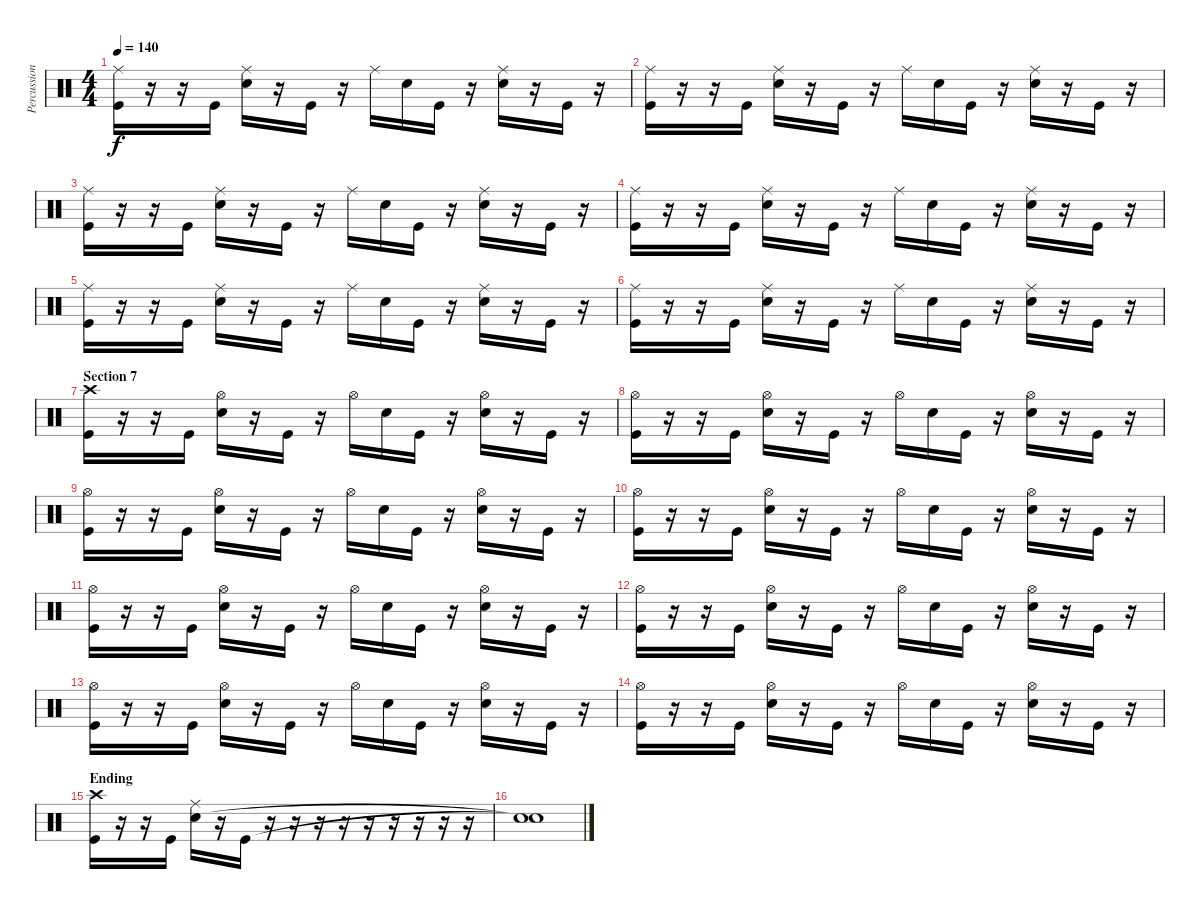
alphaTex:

\track ("Percussion" "Percussion") {instrument percussion}
\staff {score}
\articulation defaults
\ts (4 4)
\tempo 140
\clef neutral
\ks c
("Ride (middle)" "Kick (hit)").16{dy f} r.16 r.16 "Kick (hit)".16 ("Ride (middle)" "Electric Snare (hit)").16 r.16 "Kick (hit)".16 r.16 "Ride (middle)".16 "Electric Snare (hit)".16 "Kick (hit)".16 r.16 ("Ride (middle)" "Electric Snare (hit)").16 r.16 "Kick (hit)".16 r.16 |
("Ride (middle)" "Kick (hit)").16 r.16 r.16 "Kick (hit)".16 ("Ride (middle)" "Electric Snare (hit)").16 r.16 "Kick (hit)".16 r.16 "Ride (middle)".16 "Electric Snare (hit)".16 "Kick (hit)".16 r.16 ("Ride (middle)" "Electric Snare (hit)").16 r.16 "Kick (hit)".16 r.16 |
("Ride (middle)" "Kick (hit)").16 r.16 r.16 "Kick (hit)".16 ("Ride (middle)" "Electric Snare (hit)").16 r.16 "Kick (hit)".16 r.16 "Ride (middle)".16 "Electric Snare (hit)".16 "Kick (hit)".16 r.16 ("Ride (middle)" "Electric Snare (hit)").16 r.16 "Kick (hit)".16 r.16 |
("Ride (middle)" "Kick (hit)").16 r.16 r.16 "Kick (hit)".16 ("Ride (middle)" "Electric Snare (hit)").16 r.16 "Kick (hit)".16 r.16 "Ride (middle)".16 "Electric Snare (hit)".16 "Kick (hit)".16 r.16 ("Ride (middle)" "Electric Snare (hit)").16 r.16 "Kick (hit)".16 r.16 |
("Ride (middle)" "Kick (hit)").16 r.16 r.16 "Kick (hit)".16 ("Ride (middle)" "Electric Snare (hit)").16 r.16 "Kick (hit)".16 r.16 "Ride (middle)".16 "Electric Snare (hit)".16 "Kick (hit)".16 r.16 ("Ride (middle)" "Electric Snare (hit)").16 r.16 "Kick (hit)".16 r.16 |
("Ride (middle)" "Kick (hit)").16 r.16 r.16 "Kick (hit)".16 ("Ride (middle)" "Electric Snare (hit)").16 r.16 "Kick (hit)".16 r.16 "Ride (middle)".16 "Electric Snare (hit)".16 "Kick (hit)".16 r.16 ("Ride (middle)" "Electric Snare (hit)").16 r.16 "Kick (hit)".16 r.16 |
\section ("" "Section 7")
("Crash high (hit)" "Kick (hit)").16 r.16 r.16 "Kick (hit)".16 ("Hi-Hat (open)" "Electric Snare (hit)").16 r.16 "Kick (hit)".16 r.16 "Hi-Hat (open)".16 "Electric Snare (hit)".16 "Kick (hit)".16 r.16 ("Hi-Hat (open)" "Electric Snare (hit)").16 r.16 "Kick (hit)".16 r.16 |
("Hi-Hat (open)" "Kick (hit)").16 r.16 r.16 "Kick (hit)".16 ("Hi-Hat (open)" "Electric Snare (hit)").16 r.16 "Kick (hit)".16 r.16 "Hi-Hat (open)".16 "Electric Snare (hit)".16 "Kick (hit)".16 r.16 ("Hi-Hat (open)" "Electric Snare (hit)").16 r.16 "Kick (hit)".16 r.16 |
("Hi-Hat (open)" "Kick (hit)").16 r.16 r.16 "Kick (hit)".16 ("Hi-Hat (open)" "Electric Snare (hit)").16 r.16 "Kick (hit)".16 r.16 "Hi-Hat (open)".16 "Electric Snare (hit)".16 "Kick (hit)".16 r.16 ("Hi-Hat (open)" "Electric Snare (hit)").16 r.16 "Kick (hit)".16 r.16 |
("Hi-Hat (open)" "Kick (hit)").16 r.16 r.16 "Kick (hit)".16 ("Hi-Hat (open)" "Electric Snare (hit)").16 r.16 "Kick (hit)".16 r.16 "Hi-Hat (open)".16 "Electric Snare (hit)".16 "Kick (hit)".16 r.16 ("Hi-Hat (open)" "Electric Snare (hit)").16 r.16 "Kick (hit)".16 r.16 |
("Hi-Hat (open)" "Kick (hit)").16 r.16 r.16 "Kick (hit)".16 ("Hi-Hat (open)" "Electric Snare (hit)").16 r.16 "Kick (hit)".16 r.16 "Hi-Hat (open)".16 "Electric Snare (hit)".16 "Kick (hit)".16 r.16 ("Hi-Hat (open)" "Electric Snare (hit)").16 r.16 "Kick (hit)".16 r.16 |
("Hi-Hat (open)" "Kick (hit)").16 r.16 r.16 "Kick (hit)".16 ("Hi-Hat (open)" "Electric Snare (hit)").16 r.16 "Kick (hit)".16 r.16 "Hi-Hat (open)".16 "Electric Snare (hit)".16 "Kick (hit)".16 r.16 ("Hi-Hat (open)" "Electric Snare (hit)").16 r.16 "Kick (hit)".16 r.16 |
("Hi-Hat (open)" "Kick (hit)").16 r.16 r.16 "Kick (hit)".16 ("Hi-Hat (open)" "Electric Snare (hit)").16 r.16 "Kick (hit)".16 r.16 "Hi-Hat (open)".16 "Electric Snare (hit)".16 "Kick (hit)".16 r.16 ("Hi-Hat (open)" "Electric Snare (hit)").16 r.16 "Kick (hit)".16 r.16 |
("Hi-Hat (open)" "Kick (hit)").16 r.16 r.16 "Kick (hit)".16 ("Hi-Hat (open)" "Electric Snare (hit)").16 r.16 "Kick (hit)".16 r.16 "Hi-Hat (open)".16 "Electric Snare (hit)".16 "Kick (hit)".16 r.16 ("Hi-Hat (open)" "Electric Snare (hit)").16 r.16 "Kick (hit)".16 r.16 |
\section ("" "Ending")
("Crash high (hit)" "Kick (hit)").16 r.16 r.16 "Kick (hit)".16 ("Ride (middle)" "Electric Snare (hit)").16 r.16 "Kick (hit)".16 r.16 r.16 r.16 r.16 r.16 r.16 r.16 r.16 r.16 |
("Snare (hit)"{t} "Snare (hit)"{t}).1
